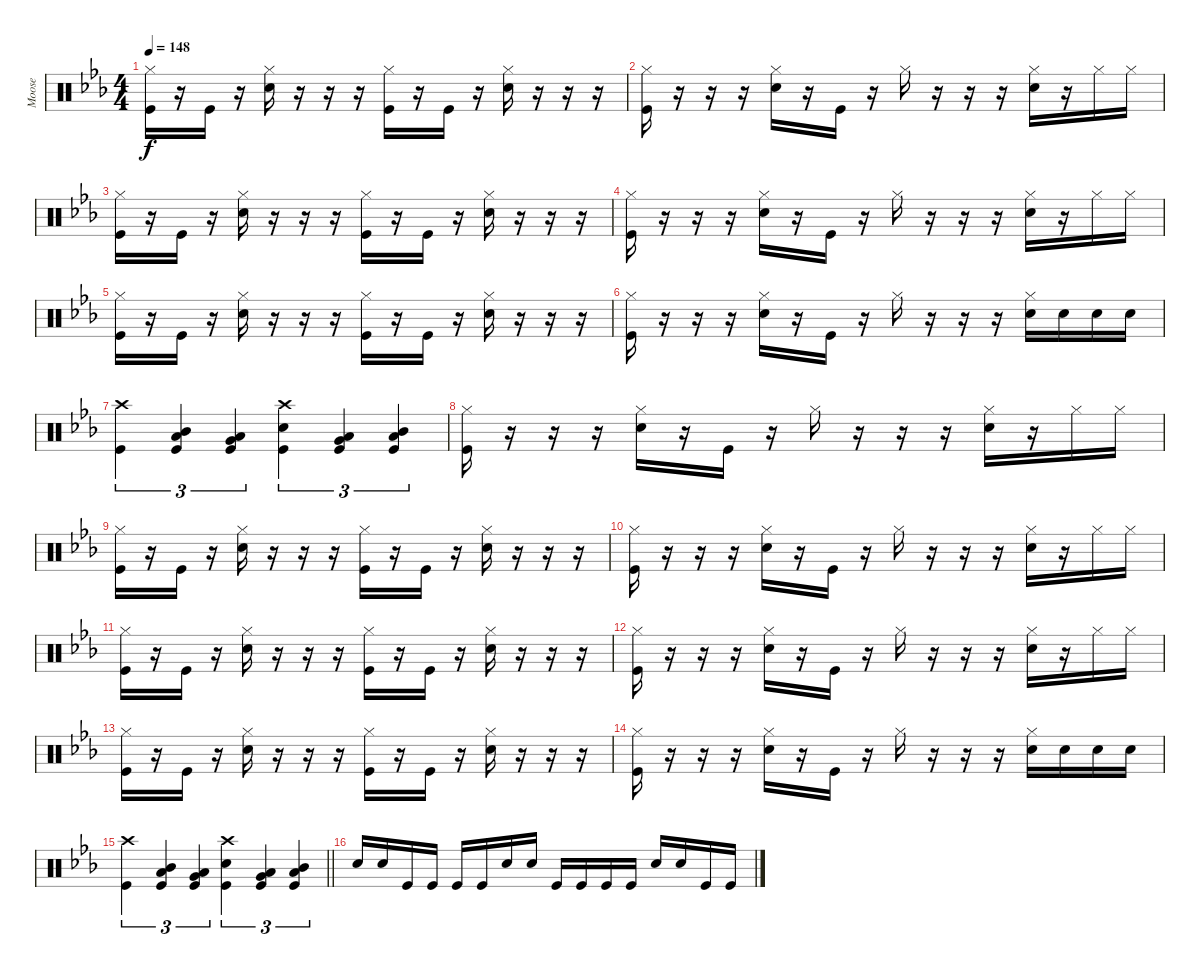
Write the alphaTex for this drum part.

\track ("Moose" "Moose") {instrument percussion}
\staff {score}
\articulation defaults
\ts (4 4)
\tempo 148
\clef neutral
\ks eb
("Hi-Hat (closed)" "Kick (hit)").16{dy f} r.16 "Kick (hit)".16 r.16 ("Hi-Hat (closed)" "Snare (hit) 2").16 r.16 r.16 r.16 ("Hi-Hat (closed)" "Kick (hit)").16 r.16 "Kick (hit)".16 r.16 ("Hi-Hat (closed)" "Snare (hit) 2").16 r.16 r.16 r.16 |
("Hi-Hat (closed)" "Kick (hit)").16 r.16 r.16 r.16 ("Hi-Hat (closed)" "Snare (hit) 2").16 r.16 "Kick (hit)".16 r.16 "Hi-Hat (closed)".16 r.16 r.16 r.16 ("Hi-Hat (closed)" "Snare (hit) 2").16 r.16 "Hi-Hat (closed)".16 "Hi-Hat (closed)".16 |
("Hi-Hat (closed)" "Kick (hit)").16 r.16 "Kick (hit)".16 r.16 ("Hi-Hat (closed)" "Snare (hit) 2").16 r.16 r.16 r.16 ("Hi-Hat (closed)" "Kick (hit)").16 r.16 "Kick (hit)".16 r.16 ("Hi-Hat (closed)" "Snare (hit) 2").16 r.16 r.16 r.16 |
("Hi-Hat (closed)" "Kick (hit)").16 r.16 r.16 r.16 ("Hi-Hat (closed)" "Snare (hit) 2").16 r.16 "Kick (hit)".16 r.16 "Hi-Hat (closed)".16 r.16 r.16 r.16 ("Hi-Hat (closed)" "Snare (hit) 2").16 r.16 "Hi-Hat (closed)".16 "Hi-Hat (closed)".16 |
("Hi-Hat (closed)" "Kick (hit)").16 r.16 "Kick (hit)".16 r.16 ("Hi-Hat (closed)" "Snare (hit) 2").16 r.16 r.16 r.16 ("Hi-Hat (closed)" "Kick (hit)").16 r.16 "Kick (hit)".16 r.16 ("Hi-Hat (closed)" "Snare (hit) 2").16 r.16 r.16 r.16 |
("Hi-Hat (closed)" "Kick (hit)").16 r.16 r.16 r.16 ("Hi-Hat (closed)" "Snare (hit) 2").16 r.16 "Kick (hit)".16 r.16 "Hi-Hat (closed)".16 r.16 r.16 r.16 ("Hi-Hat (closed)" "Snare (hit) 2").16 "Snare (hit) 2".16 "Snare (hit) 2".16 "Snare (hit) 2".16 |
("Crash high (hit)" "Kick (hit)").4{tu (3 2)} ("Mid Tom (hit)" "Low Tom (hit)" "Kick (hit)").4{tu (3 2)} ("Low Tom (hit)" "Very Low Tom (hit)" "Kick (hit)").4{tu (3 2)} ("Crash high (hit)" "Snare (hit) 2" "Kick (hit)").4{tu (3 2)} ("Low Tom (hit)" "Very Low Tom (hit)" "Kick (hit)").4{tu (3 2)} ("Mid Tom (hit)" "Low Tom (hit)" "Kick (hit)").4{tu (3 2)} |
("Hi-Hat (closed)" "Kick (hit)").16 r.16 r.16 r.16 ("Hi-Hat (closed)" "Snare (hit) 2").16 r.16 "Kick (hit)".16 r.16 "Hi-Hat (closed)".16 r.16 r.16 r.16 ("Hi-Hat (closed)" "Snare (hit) 2").16 r.16 "Hi-Hat (closed)".16 "Hi-Hat (closed)".16 |
("Hi-Hat (closed)" "Kick (hit)").16 r.16 "Kick (hit)".16 r.16 ("Hi-Hat (closed)" "Snare (hit) 2").16 r.16 r.16 r.16 ("Hi-Hat (closed)" "Kick (hit)").16 r.16 "Kick (hit)".16 r.16 ("Hi-Hat (closed)" "Snare (hit) 2").16 r.16 r.16 r.16 |
("Hi-Hat (closed)" "Kick (hit)").16 r.16 r.16 r.16 ("Hi-Hat (closed)" "Snare (hit) 2").16 r.16 "Kick (hit)".16 r.16 "Hi-Hat (closed)".16 r.16 r.16 r.16 ("Hi-Hat (closed)" "Snare (hit) 2").16 r.16 "Hi-Hat (closed)".16 "Hi-Hat (closed)".16 |
("Hi-Hat (closed)" "Kick (hit)").16 r.16 "Kick (hit)".16 r.16 ("Hi-Hat (closed)" "Snare (hit) 2").16 r.16 r.16 r.16 ("Hi-Hat (closed)" "Kick (hit)").16 r.16 "Kick (hit)".16 r.16 ("Hi-Hat (closed)" "Snare (hit) 2").16 r.16 r.16 r.16 |
("Hi-Hat (closed)" "Kick (hit)").16 r.16 r.16 r.16 ("Hi-Hat (closed)" "Snare (hit) 2").16 r.16 "Kick (hit)".16 r.16 "Hi-Hat (closed)".16 r.16 r.16 r.16 ("Hi-Hat (closed)" "Snare (hit) 2").16 r.16 "Hi-Hat (closed)".16 "Hi-Hat (closed)".16 |
("Hi-Hat (closed)" "Kick (hit)").16 r.16 "Kick (hit)".16 r.16 ("Hi-Hat (closed)" "Snare (hit) 2").16 r.16 r.16 r.16 ("Hi-Hat (closed)" "Kick (hit)").16 r.16 "Kick (hit)".16 r.16 ("Hi-Hat (closed)" "Snare (hit) 2").16 r.16 r.16 r.16 |
("Hi-Hat (closed)" "Kick (hit)").16 r.16 r.16 r.16 ("Hi-Hat (closed)" "Snare (hit) 2").16 r.16 "Kick (hit)".16 r.16 "Hi-Hat (closed)".16 r.16 r.16 r.16 ("Hi-Hat (closed)" "Snare (hit) 2").16 "Snare (hit) 2".16 "Snare (hit) 2".16 "Snare (hit) 2".16 |
\barLineRight lightlight
("Crash high (hit)" "Kick (hit)").4{tu (3 2)} ("Mid Tom (hit)" "Low Tom (hit)" "Kick (hit)").4{tu (3 2)} ("Low Tom (hit)" "Very Low Tom (hit)" "Kick (hit)").4{tu (3 2)} ("Crash high (hit)" "Snare (hit) 2" "Kick (hit)").4{tu (3 2)} ("Low Tom (hit)" "Very Low Tom (hit)" "Kick (hit)").4{tu (3 2)} ("Mid Tom (hit)" "Low Tom (hit)" "Kick (hit)").4{tu (3 2)} |
"Snare (hit) 2".16 "Snare (hit) 2".16 "Kick (hit)".16 "Kick (hit)".16 "Kick (hit)".16 "Kick (hit)".16 "Snare (hit) 2".16 "Snare (hit) 2".16 "Kick (hit)".16 "Kick (hit)".16 "Kick (hit)".16 "Kick (hit)".16 "Snare (hit) 2".16 "Snare (hit) 2".16 "Kick (hit)".16 "Kick (hit)".16
